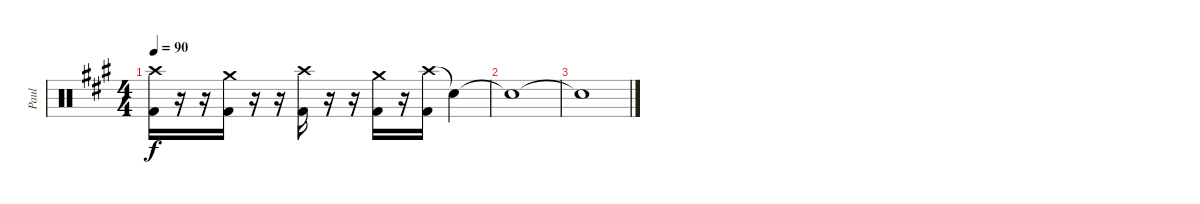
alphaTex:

\track ("Paul" "Paul") {instrument percussion}
\staff {score}
\articulation defaults
\ts (4 4)
\tempo 90
\clef neutral
\ks a
("Crash high (hit)" "Kick (hit) 2").16{dy f} r.16 r.16 ("Crash medium (hit)" "Kick (hit) 2").16 r.16 r.16 ("Crash high (hit)" "Kick (hit) 2").16 r.16 r.16 ("Crash medium (hit)" "Kick (hit) 2").16 r.16 ("Crash high (hit)" "Kick (hit) 2").16 "Snare (hit)"{t}.4 |
"Snare (hit)"{t}.1{volume 0} |
"Snare (hit)"{t}.1
